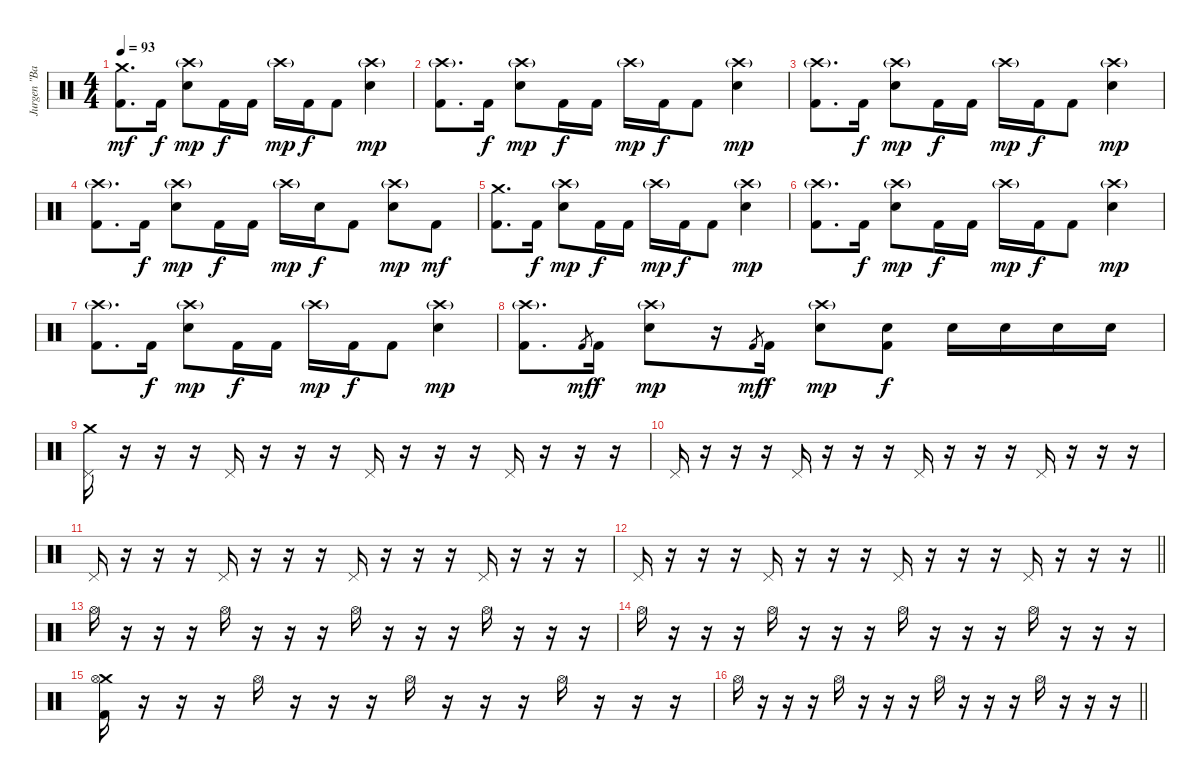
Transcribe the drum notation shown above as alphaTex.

\track ("Jurgen \"Bam Bam\" Wiehler" "Jurgen \"Ba") {instrument percussion}
\staff {score}
\articulation defaults
\ts (4 4)
\tempo 93
\clef neutral
\ks c
("Crash medium (hit)" "Kick (hit) 2").8{d dy mf} "Kick (hit) 2".16{dy f} ("Crash high (hit)"{g} "Electric Snare (hit)").8{dy mp} "Kick (hit) 2".16{dy f} "Kick (hit) 2".16 "Crash high (hit)"{g}.16{dy mp} "Kick (hit) 2".16{dy f} "Kick (hit) 2".8 ("Crash high (hit)"{g} "Electric Snare (hit)").4{dy mp} |
("Crash high (hit)"{g} "Kick (hit) 2").8{d} "Kick (hit) 2".16{dy f} ("Crash high (hit)"{g} "Electric Snare (hit)").8{dy mp} "Kick (hit) 2".16{dy f} "Kick (hit) 2".16 "Crash high (hit)"{g}.16{dy mp} "Kick (hit) 2".16{dy f} "Kick (hit) 2".8 ("Crash high (hit)"{g} "Electric Snare (hit)").4{dy mp} |
("Crash high (hit)"{g} "Kick (hit) 2").8{d} "Kick (hit) 2".16{dy f} ("Crash high (hit)"{g} "Electric Snare (hit)").8{dy mp} "Kick (hit) 2".16{dy f} "Kick (hit) 2".16 "Crash high (hit)"{g}.16{dy mp} "Kick (hit) 2".16{dy f} "Kick (hit) 2".8 ("Crash high (hit)"{g} "Electric Snare (hit)").4{dy mp} |
("Crash high (hit)"{g} "Kick (hit) 2").8{d} "Kick (hit) 2".16{dy f} ("Crash high (hit)"{g} "Electric Snare (hit)").8{dy mp} "Kick (hit) 2".16{dy f} "Kick (hit) 2".16 "Crash high (hit)"{g}.16{dy mp} "Electric Snare (hit)".16{dy f} "Kick (hit) 2".8 ("Crash high (hit)"{g} "Electric Snare (hit)").8{dy mp} "Kick (hit) 2".8{dy mf} |
("Crash medium (hit)" "Kick (hit) 2").8{d} "Kick (hit) 2".16{dy f} ("Crash high (hit)"{g} "Electric Snare (hit)").8{dy mp} "Kick (hit) 2".16{dy f} "Kick (hit) 2".16 "Crash high (hit)"{g}.16{dy mp} "Kick (hit) 2".16{dy f} "Kick (hit) 2".8 ("Crash high (hit)"{g} "Electric Snare (hit)").4{dy mp} |
("Crash high (hit)"{g} "Kick (hit) 2").8{d} "Kick (hit) 2".16{dy f} ("Crash high (hit)"{g} "Electric Snare (hit)").8{dy mp} "Kick (hit) 2".16{dy f} "Kick (hit) 2".16 "Crash high (hit)"{g}.16{dy mp} "Kick (hit) 2".16{dy f} "Kick (hit) 2".8 ("Crash high (hit)"{g} "Electric Snare (hit)").4{dy mp} |
("Crash high (hit)"{g} "Kick (hit) 2").8{d} "Kick (hit) 2".16{dy f} ("Crash high (hit)"{g} "Electric Snare (hit)").8{dy mp} "Kick (hit) 2".16{dy f} "Kick (hit) 2".16 "Crash high (hit)"{g}.16{dy mp} "Kick (hit) 2".16{dy f} "Kick (hit) 2".8 ("Crash high (hit)"{g} "Electric Snare (hit)").4{dy mp} |
("Crash high (hit)"{g} "Kick (hit) 2").8{d} "Kick (hit) 2".8{gr dy mf} "Kick (hit) 2".16{dy f} ("Crash high (hit)"{g} "Electric Snare (hit)").8{dy mp} r.16 "Kick (hit) 2".8{gr dy mf} "Kick (hit) 2".16{dy f} ("Crash high (hit)"{g} "Electric Snare (hit)").8{dy mp} ("Electric Snare (hit)" "Kick (hit) 2").8{dy f} "Electric Snare (hit)".16 "Electric Snare (hit)".16 "Electric Snare (hit)".16 "Electric Snare (hit)".16 |
("Crash medium (hit)" "Pedal Hi-Hat (hit)").16 r.16 r.16 r.16 "Pedal Hi-Hat (hit)".16 r.16 r.16 r.16 "Pedal Hi-Hat (hit)".16 r.16 r.16 r.16 "Pedal Hi-Hat (hit)".16 r.16 r.16 r.16 |
"Pedal Hi-Hat (hit)".16 r.16 r.16 r.16 "Pedal Hi-Hat (hit)".16 r.16 r.16 r.16 "Pedal Hi-Hat (hit)".16 r.16 r.16 r.16 "Pedal Hi-Hat (hit)".16 r.16 r.16 r.16 |
"Pedal Hi-Hat (hit)".16 r.16 r.16 r.16 "Pedal Hi-Hat (hit)".16 r.16 r.16 r.16 "Pedal Hi-Hat (hit)".16 r.16 r.16 r.16 "Pedal Hi-Hat (hit)".16 r.16 r.16 r.16 |
\barLineRight lightlight "Pedal Hi-Hat (hit)".16
r.16 r.16 r.16 "Pedal Hi-Hat (hit)".16 r.16 r.16 r.16 "Pedal Hi-Hat (hit)".16 r.16 r.16 r.16 "Pedal Hi-Hat (hit)".16 r.16 r.16 r.16 |
"Hi-Hat (open)".16 r.16 r.16 r.16 "Hi-Hat (open)".16 r.16 r.16 r.16 "Hi-Hat (open)".16 r.16 r.16 r.16 "Hi-Hat (open)".16 r.16 r.16 r.16 |
"Hi-Hat (open)".16 r.16 r.16 r.16 "Hi-Hat (open)".16 r.16 r.16 r.16 "Hi-Hat (open)".16 r.16 r.16 r.16 "Hi-Hat (open)".16 r.16 r.16 r.16 |
("Crash medium (hit)" "Hi-Hat (open)" "Kick (hit) 2").16 r.16 r.16 r.16 "Hi-Hat (open)".16 r.16 r.16 r.16 "Hi-Hat (open)".16 r.16 r.16 r.16 "Hi-Hat (open)".16 r.16 r.16 r.16 |
\barLineRight lightlight "Hi-Hat (open)".16
r.16 r.16 r.16 "Hi-Hat (open)".16 r.16 r.16 r.16 "Hi-Hat (open)".16 r.16 r.16 r.16 "Hi-Hat (open)".16 r.16 r.16 r.16
